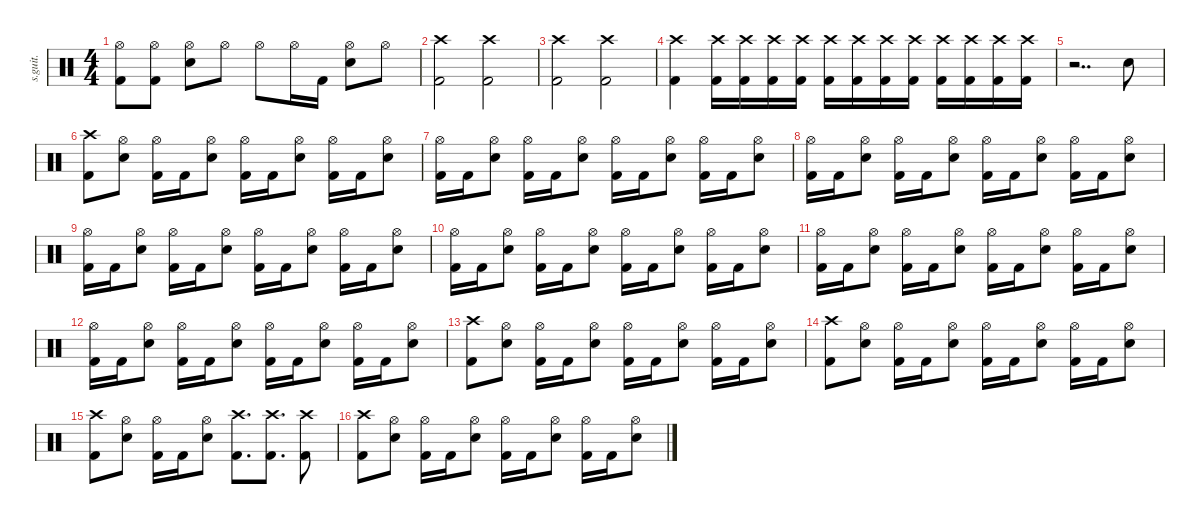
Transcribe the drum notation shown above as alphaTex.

\defaultSystemsLayout 4
\hideDynamics
\bracketExtendMode nobrackets
\track ("" "s.guit.") {instrument percussion}
\staff {score}
\articulation defaults
\ts (4 4)
\tempo (128 hide)
\clef neutral
\ks c
("Hi-Hat (open)" "Kick (hit) 2").8{dy f} ("Hi-Hat (open)" "Kick (hit) 2").8 ("Hi-Hat (open)" "Snare (hit) 2").8 "Hi-Hat (open)".8 "Hi-Hat (open)".8 "Hi-Hat (open)".16 "Kick (hit) 2".16 ("Hi-Hat (open)" "Snare (hit) 2").8 "Hi-Hat (open)".8 |
\tempo (124 hide)
("Crash high (hit)" "Kick (hit) 2").2 ("Crash high (hit)" "Kick (hit) 2").2 |
\tempo (128 hide)
("Crash high (hit)" "Kick (hit) 2").2 ("Crash high (hit)" "Kick (hit) 2").2 |
\tempo (144 hide)
("Crash high (hit)" "Kick (hit) 2").4 ("Crash high (hit)" "Kick (hit) 2").16 ("Crash high (hit)" "Kick (hit) 2").16 ("Crash high (hit)" "Kick (hit) 2").16 ("Crash high (hit)" "Kick (hit) 2").16 ("Crash high (hit)" "Kick (hit) 2").16 ("Crash high (hit)" "Kick (hit) 2").16 ("Crash high (hit)" "Kick (hit) 2").16 ("Crash high (hit)" "Kick (hit) 2").16 ("Crash high (hit)" "Kick (hit) 2").16 ("Crash high (hit)" "Kick (hit) 2").16 ("Crash high (hit)" "Kick (hit) 2").16 ("Crash high (hit)" "Kick (hit) 2").16 |
\tempo (148 hide)
r.2{dd} "Snare (hit) 2".8 |
\tempo (144 hide)
("Crash high (hit)" "Kick (hit) 2").8 ("Hi-Hat (open)" "Snare (hit) 2").8 ("Hi-Hat (open)" "Kick (hit) 2").16 "Kick (hit) 2".16 ("Hi-Hat (open)" "Snare (hit) 2").8 ("Hi-Hat (open)" "Kick (hit) 2").16 "Kick (hit) 2".16 ("Hi-Hat (open)" "Snare (hit) 2").8 ("Hi-Hat (open)" "Kick (hit) 2").16 "Kick (hit) 2".16 ("Hi-Hat (open)" "Snare (hit) 2").8 |
\tempo (145 hide)
("Hi-Hat (open)" "Kick (hit) 2").16 "Kick (hit) 2".16 ("Hi-Hat (open)" "Snare (hit) 2").8 ("Hi-Hat (open)" "Kick (hit) 2").16 "Kick (hit) 2".16 ("Hi-Hat (open)" "Snare (hit) 2").8 ("Hi-Hat (open)" "Kick (hit) 2").16 "Kick (hit) 2".16 ("Hi-Hat (open)" "Snare (hit) 2").8 ("Hi-Hat (open)" "Kick (hit) 2").16 "Kick (hit) 2".16 ("Hi-Hat (open)" "Snare (hit) 2").8 |
\tempo (144 hide)
("Hi-Hat (open)" "Kick (hit) 2").16 "Kick (hit) 2".16 ("Hi-Hat (open)" "Snare (hit) 2").8 ("Hi-Hat (open)" "Kick (hit) 2").16 "Kick (hit) 2".16 ("Hi-Hat (open)" "Snare (hit) 2").8 ("Hi-Hat (open)" "Kick (hit) 2").16 "Kick (hit) 2".16 ("Hi-Hat (open)" "Snare (hit) 2").8 ("Hi-Hat (open)" "Kick (hit) 2").16 "Kick (hit) 2".16 ("Hi-Hat (open)" "Snare (hit) 2").8 |
\tempo (145 hide)
("Hi-Hat (open)" "Kick (hit) 2").16 "Kick (hit) 2".16 ("Hi-Hat (open)" "Snare (hit) 2").8 ("Hi-Hat (open)" "Kick (hit) 2").16 "Kick (hit) 2".16 ("Hi-Hat (open)" "Snare (hit) 2").8 ("Hi-Hat (open)" "Kick (hit) 2").16 "Kick (hit) 2".16 ("Hi-Hat (open)" "Snare (hit) 2").8 ("Hi-Hat (open)" "Kick (hit) 2").16 "Kick (hit) 2".16 ("Hi-Hat (open)" "Snare (hit) 2").8 |
\tempo (146 hide)
("Hi-Hat (open)" "Kick (hit) 2").16 "Kick (hit) 2".16 ("Hi-Hat (open)" "Snare (hit) 2").8 ("Hi-Hat (open)" "Kick (hit) 2").16 "Kick (hit) 2".16 ("Hi-Hat (open)" "Snare (hit) 2").8 ("Hi-Hat (open)" "Kick (hit) 2").16 "Kick (hit) 2".16 ("Hi-Hat (open)" "Snare (hit) 2").8 ("Hi-Hat (open)" "Kick (hit) 2").16 "Kick (hit) 2".16 ("Hi-Hat (open)" "Snare (hit) 2").8 |
\tempo (149 hide)
("Hi-Hat (open)" "Kick (hit) 2").16 "Kick (hit) 2".16 ("Hi-Hat (open)" "Snare (hit) 2").8 ("Hi-Hat (open)" "Kick (hit) 2").16 "Kick (hit) 2".16 ("Hi-Hat (open)" "Snare (hit) 2").8 ("Hi-Hat (open)" "Kick (hit) 2").16 "Kick (hit) 2".16 ("Hi-Hat (open)" "Snare (hit) 2").8 ("Hi-Hat (open)" "Kick (hit) 2").16 "Kick (hit) 2".16 ("Hi-Hat (open)" "Snare (hit) 2").8 |
\tempo (150 hide)
("Hi-Hat (open)" "Kick (hit) 2").16 "Kick (hit) 2".16 ("Hi-Hat (open)" "Snare (hit) 2").8 ("Hi-Hat (open)" "Kick (hit) 2").16 "Kick (hit) 2".16 ("Hi-Hat (open)" "Snare (hit) 2").8 ("Hi-Hat (open)" "Kick (hit) 2").16 "Kick (hit) 2".16 ("Hi-Hat (open)" "Snare (hit) 2").8 ("Hi-Hat (open)" "Kick (hit) 2").16 "Kick (hit) 2".16 ("Hi-Hat (open)" "Snare (hit) 2").8 |
\tempo (152 hide)
("Crash high (hit)" "Kick (hit) 2").8 ("Hi-Hat (open)" "Snare (hit) 2").8 ("Hi-Hat (open)" "Kick (hit) 2").16 "Kick (hit) 2".16 ("Hi-Hat (open)" "Snare (hit) 2").8 ("Hi-Hat (open)" "Kick (hit) 2").16 "Kick (hit) 2".16 ("Hi-Hat (open)" "Snare (hit) 2").8 ("Hi-Hat (open)" "Kick (hit) 2").16 "Kick (hit) 2".16 ("Hi-Hat (open)" "Snare (hit) 2").8 |
\tempo (153 hide)
("Crash high (hit)" "Kick (hit) 2").8 ("Hi-Hat (open)" "Snare (hit) 2").8 ("Hi-Hat (open)" "Kick (hit) 2").16 "Kick (hit) 2".16 ("Hi-Hat (open)" "Snare (hit) 2").8 ("Hi-Hat (open)" "Kick (hit) 2").16 "Kick (hit) 2".16 ("Hi-Hat (open)" "Snare (hit) 2").8 ("Hi-Hat (open)" "Kick (hit) 2").16 "Kick (hit) 2".16 ("Hi-Hat (open)" "Snare (hit) 2").8 |
\tempo (154 hide)
("Crash high (hit)" "Kick (hit) 2").8 ("Hi-Hat (open)" "Snare (hit) 2").8 ("Hi-Hat (open)" "Kick (hit) 2").16 "Kick (hit) 2".16 ("Hi-Hat (open)" "Snare (hit) 2").8 ("Crash high (hit)" "Kick (hit) 2").8{d} ("Crash high (hit)" "Kick (hit) 2").8{d} ("Crash high (hit)" "Kick (hit) 2").8 |
\tempo (153 hide)
("Crash high (hit)" "Kick (hit) 2").8 ("Hi-Hat (open)" "Snare (hit) 2").8 ("Hi-Hat (open)" "Kick (hit) 2").16 "Kick (hit) 2".16 ("Hi-Hat (open)" "Snare (hit) 2").8 ("Hi-Hat (open)" "Kick (hit) 2").16 "Kick (hit) 2".16 ("Hi-Hat (open)" "Snare (hit) 2").8 ("Hi-Hat (open)" "Kick (hit) 2").16 "Kick (hit) 2".16 ("Hi-Hat (open)" "Snare (hit) 2").8
